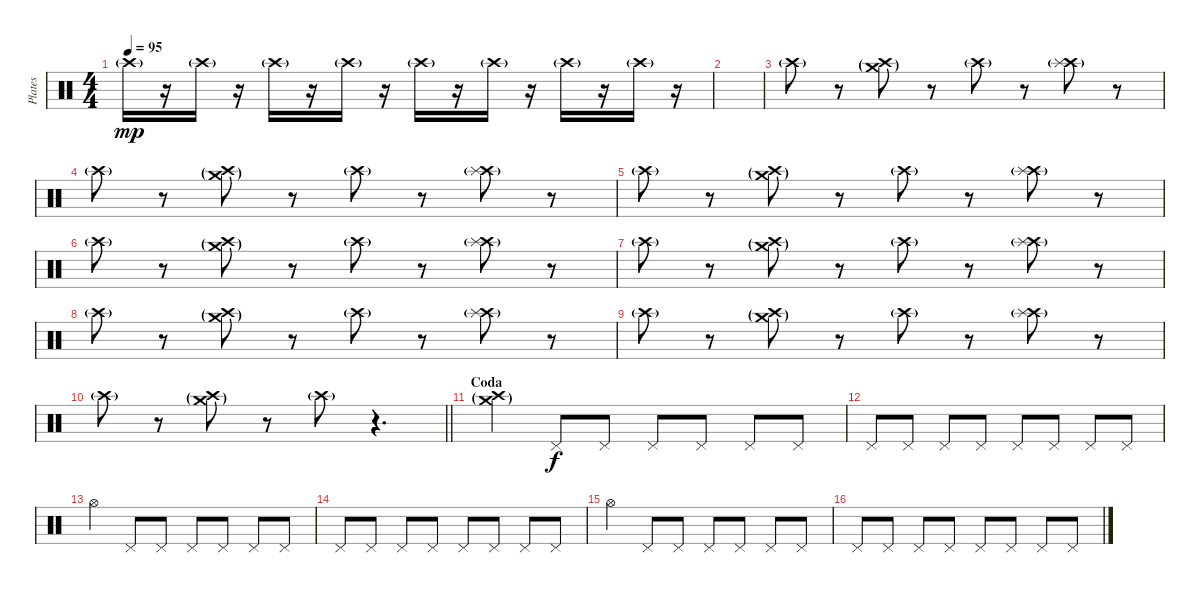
\track ("Plates" "Plates") {instrument percussion}
\staff {score}
\articulation defaults
\ts (4 4)
\tempo 95
\clef neutral
\ks c "Crash high (hit)"{g}.16{dy mp}
r.16 "Crash high (hit)"{g}.16 r.16 "Crash high (hit)"{g}.16 r.16 "Crash high (hit)"{g}.16 r.16 "Crash high (hit)"{g}.16 r.16 "Crash high (hit)"{g}.16 r.16 "Crash high (hit)"{g}.16 r.16 "Crash high (hit)"{g}.16 r.16 |
|
"Crash high (hit)"{g}.8 r.8 ("Crash high (hit)"{g} "Crash medium (hit)"{g}).8 r.8 "Crash high (hit)"{g}.8 r.8 ("Crash high (hit)"{g} "Splash (hit)"{g}).8 r.8 |
"Crash high (hit)"{g}.8 r.8 ("Crash high (hit)"{g} "Crash medium (hit)"{g}).8 r.8 "Crash high (hit)"{g}.8 r.8 ("Crash high (hit)"{g} "Splash (hit)"{g}).8 r.8 |
"Crash high (hit)"{g}.8 r.8 ("Crash high (hit)"{g} "Crash medium (hit)"{g}).8 r.8 "Crash high (hit)"{g}.8 r.8 ("Crash high (hit)"{g} "Splash (hit)"{g}).8 r.8 |
"Crash high (hit)"{g}.8 r.8 ("Crash high (hit)"{g} "Crash medium (hit)"{g}).8 r.8 "Crash high (hit)"{g}.8 r.8 ("Crash high (hit)"{g} "Splash (hit)"{g}).8 r.8 |
"Crash high (hit)"{g}.8 r.8 ("Crash high (hit)"{g} "Crash medium (hit)"{g}).8 r.8 "Crash high (hit)"{g}.8 r.8 ("Crash high (hit)"{g} "Splash (hit)"{g}).8 r.8 |
"Crash high (hit)"{g}.8 r.8 ("Crash high (hit)"{g} "Crash medium (hit)"{g}).8 r.8 "Crash high (hit)"{g}.8 r.8 ("Crash high (hit)"{g} "Splash (hit)"{g}).8 r.8 |
"Crash high (hit)"{g}.8 r.8 ("Crash high (hit)"{g} "Crash medium (hit)"{g}).8 r.8 "Crash high (hit)"{g}.8 r.8 ("Crash high (hit)"{g} "Splash (hit)"{g}).8 r.8 |
\barLineRight lightlight "Crash high (hit)"{g}.8
r.8 ("Crash high (hit)"{g} "Crash medium (hit)"{g}).8 r.8 "Crash high (hit)"{g}.8 r.4{d} |
\section ("" "Coda")
("Crash high (hit)"{g} "Crash medium (hit)"{g}).4 "Pedal Hi-Hat (hit)".8{dy f} "Pedal Hi-Hat (hit)".8 "Pedal Hi-Hat (hit)".8 "Pedal Hi-Hat (hit)".8 "Pedal Hi-Hat (hit)".8 "Pedal Hi-Hat (hit)".8 |
"Pedal Hi-Hat (hit)".8 "Pedal Hi-Hat (hit)".8 "Pedal Hi-Hat (hit)".8 "Pedal Hi-Hat (hit)".8 "Pedal Hi-Hat (hit)".8 "Pedal Hi-Hat (hit)".8 "Pedal Hi-Hat (hit)".8 "Pedal Hi-Hat (hit)".8 |
"Hi-Hat (open)".4 "Pedal Hi-Hat (hit)".8 "Pedal Hi-Hat (hit)".8 "Pedal Hi-Hat (hit)".8 "Pedal Hi-Hat (hit)".8 "Pedal Hi-Hat (hit)".8 "Pedal Hi-Hat (hit)".8 |
"Pedal Hi-Hat (hit)".8 "Pedal Hi-Hat (hit)".8 "Pedal Hi-Hat (hit)".8 "Pedal Hi-Hat (hit)".8 "Pedal Hi-Hat (hit)".8 "Pedal Hi-Hat (hit)".8 "Pedal Hi-Hat (hit)".8 "Pedal Hi-Hat (hit)".8 |
"Hi-Hat (open)".4 "Pedal Hi-Hat (hit)".8 "Pedal Hi-Hat (hit)".8 "Pedal Hi-Hat (hit)".8 "Pedal Hi-Hat (hit)".8 "Pedal Hi-Hat (hit)".8 "Pedal Hi-Hat (hit)".8 |
"Pedal Hi-Hat (hit)".8 "Pedal Hi-Hat (hit)".8 "Pedal Hi-Hat (hit)".8 "Pedal Hi-Hat (hit)".8 "Pedal Hi-Hat (hit)".8 "Pedal Hi-Hat (hit)".8 "Pedal Hi-Hat (hit)".8 "Pedal Hi-Hat (hit)".8
